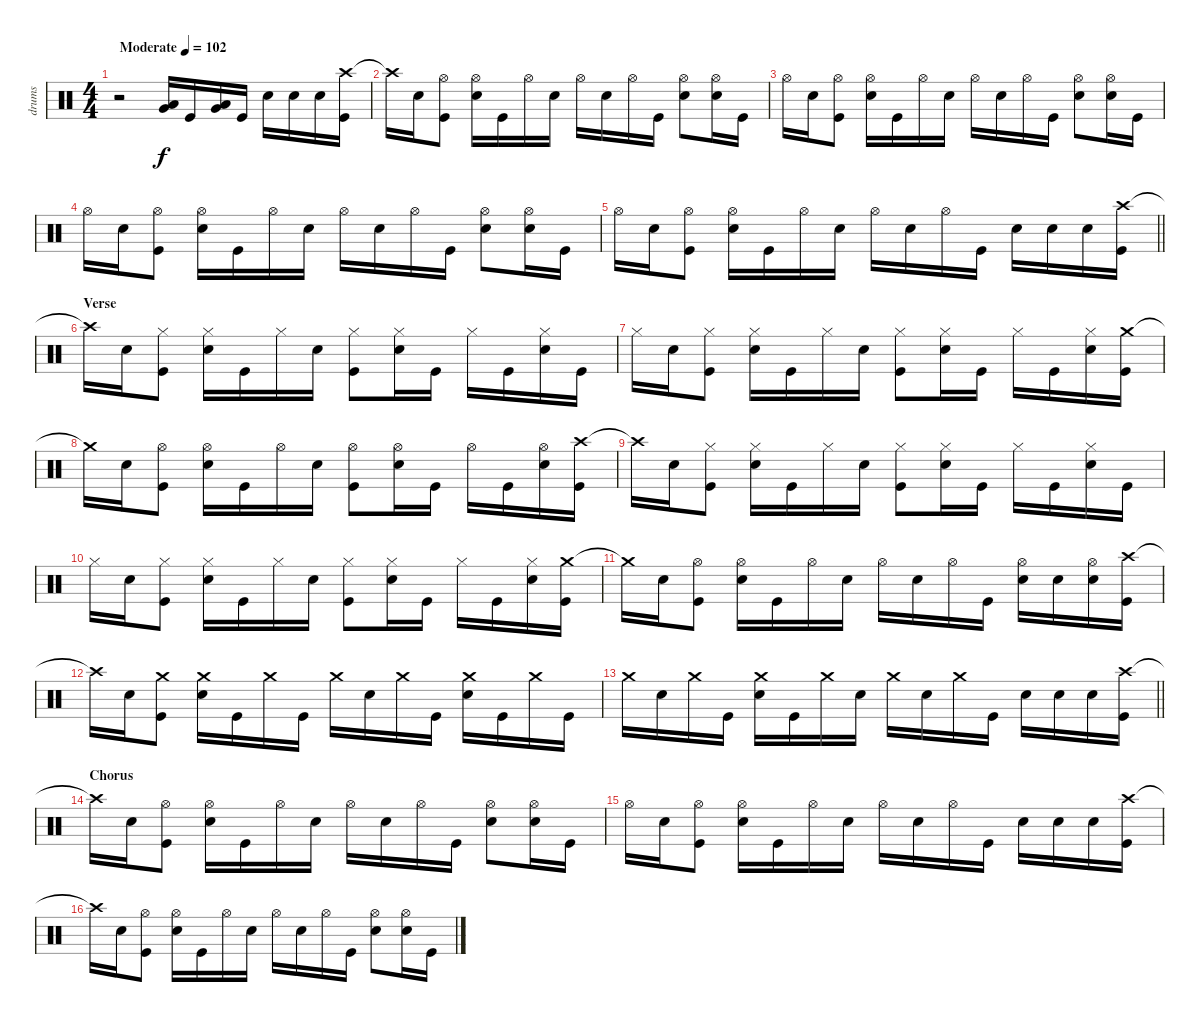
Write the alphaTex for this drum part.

\track ("drums" "drums") {instrument percussion}
\staff {score}
\articulation defaults
\ts (4 4)
\tempo (102 "Moderate")
\clef neutral
\ks c
r.2{dy f} ("Very Low Tom (hit)" "Low Tom (hit)").16 "Kick (hit)".16 ("Very Low Tom (hit)" "Low Tom (hit)").16 "Kick (hit)".16 "Snare (hit) 2".16 "Snare (hit) 2".16 "Snare (hit) 2".16 ("Crash high (hit)" "Kick (hit)").16 |
"Crash high (hit)"{t}.16 "Snare (hit) 2".16 ("Kick (hit)" "Hi-Hat (open)").8 ("Snare (hit) 2" "Hi-Hat (open)").16 "Kick (hit)".16 "Hi-Hat (open)".16 "Snare (hit) 2".16 "Hi-Hat (open)".16 "Snare (hit) 2".16 "Hi-Hat (open)".16 "Kick (hit)".16 ("Snare (hit) 2" "Hi-Hat (open)").8 ("Snare (hit) 2" "Hi-Hat (open)").16 "Kick (hit)".16 |
"Hi-Hat (open)".16 "Snare (hit) 2".16 ("Kick (hit)" "Hi-Hat (open)").8 ("Snare (hit) 2" "Hi-Hat (open)").16 "Kick (hit)".16 "Hi-Hat (open)".16 "Snare (hit) 2".16 "Hi-Hat (open)".16 "Snare (hit) 2".16 "Hi-Hat (open)".16 "Kick (hit)".16 ("Snare (hit) 2" "Hi-Hat (open)").8 ("Snare (hit) 2" "Hi-Hat (open)").16 "Kick (hit)".16 |
"Hi-Hat (open)".16 "Snare (hit) 2".16 ("Kick (hit)" "Hi-Hat (open)").8 ("Snare (hit) 2" "Hi-Hat (open)").16 "Kick (hit)".16 "Hi-Hat (open)".16 "Snare (hit) 2".16 "Hi-Hat (open)".16 "Snare (hit) 2".16 "Hi-Hat (open)".16 "Kick (hit)".16 ("Snare (hit) 2" "Hi-Hat (open)").8 ("Snare (hit) 2" "Hi-Hat (open)").16 "Kick (hit)".16 |
\barLineRight lightlight "Hi-Hat (open)".16 "Snare (hit) 2".16
("Kick (hit)" "Hi-Hat (open)").8 ("Snare (hit) 2" "Hi-Hat (open)").16 "Kick (hit)".16 "Hi-Hat (open)".16 "Snare (hit) 2".16 "Hi-Hat (open)".16 "Snare (hit) 2".16 "Hi-Hat (open)".16 "Kick (hit)".16 "Snare (hit) 2".16 "Snare (hit) 2".16 "Snare (hit) 2".16 ("Crash high (hit)" "Kick (hit)").16 |
\section ("" "Verse")
"Crash high (hit)"{t}.16 "Snare (hit) 2".16 ("Hi-Hat (closed)" "Kick (hit)").8 ("Hi-Hat (closed)" "Snare (hit) 2").16 "Kick (hit)".16 "Hi-Hat (closed)".16 "Snare (hit) 2".16 ("Hi-Hat (closed)" "Kick (hit)").8 ("Hi-Hat (closed)" "Snare (hit) 2").16 "Kick (hit)".16 "Hi-Hat (closed)".16 "Kick (hit)".16 ("Hi-Hat (closed)" "Snare (hit) 2").16 "Kick (hit)".16 |
"Hi-Hat (closed)".16 "Snare (hit) 2".16 ("Hi-Hat (closed)" "Kick (hit)").8 ("Hi-Hat (closed)" "Snare (hit) 2").16 "Kick (hit)".16 "Hi-Hat (closed)".16 "Snare (hit) 2".16 ("Hi-Hat (closed)" "Kick (hit)").8 ("Hi-Hat (closed)" "Snare (hit) 2").16 "Kick (hit)".16 "Hi-Hat (closed)".16 "Kick (hit)".16 ("Hi-Hat (closed)" "Snare (hit) 2").16 ("Crash medium (hit)" "Kick (hit)").16 |
"Crash medium (hit)"{t}.16 "Snare (hit) 2".16 ("Kick (hit)" "Hi-Hat (open)").8 ("Snare (hit) 2" "Hi-Hat (open)").16 "Kick (hit)".16 "Hi-Hat (open)".16 "Snare (hit) 2".16 ("Kick (hit)" "Hi-Hat (open)").8 ("Hi-Hat (open)" "Snare (hit) 2").16 "Kick (hit)".16 "Hi-Hat (open)".16 "Kick (hit)".16 ("Hi-Hat (open)" "Snare (hit) 2").16 ("Crash high (hit)" "Kick (hit)").16 |
"Crash high (hit)"{t}.16 "Snare (hit) 2".16 ("Hi-Hat (closed)" "Kick (hit)").8 ("Hi-Hat (closed)" "Snare (hit) 2").16 "Kick (hit)".16 "Hi-Hat (closed)".16 "Snare (hit) 2".16 ("Hi-Hat (closed)" "Kick (hit)").8 ("Hi-Hat (closed)" "Snare (hit) 2").16 "Kick (hit)".16 "Hi-Hat (closed)".16 "Kick (hit)".16 ("Hi-Hat (closed)" "Snare (hit) 2").16 "Kick (hit)".16 |
"Hi-Hat (closed)".16 "Snare (hit) 2".16 ("Hi-Hat (closed)" "Kick (hit)").8 ("Hi-Hat (closed)" "Snare (hit) 2").16 "Kick (hit)".16 "Hi-Hat (closed)".16 "Snare (hit) 2".16 ("Hi-Hat (closed)" "Kick (hit)").8 ("Hi-Hat (closed)" "Snare (hit) 2").16 "Kick (hit)".16 "Hi-Hat (closed)".16 "Kick (hit)".16 ("Hi-Hat (closed)" "Snare (hit) 2").16 ("Crash medium (hit)" "Kick (hit)").16 |
"Crash medium (hit)"{t}.16 "Snare (hit) 2".16 ("Kick (hit)" "Hi-Hat (open)").8 ("Snare (hit) 2" "Hi-Hat (open)").16 "Kick (hit)".16 "Hi-Hat (open)".16 "Snare (hit) 2".16 "Hi-Hat (open)".16 "Snare (hit) 2".16 "Hi-Hat (open)".16 "Kick (hit)".16 ("Hi-Hat (open)" "Snare (hit) 2").16 "Snare (hit) 2".16 ("Hi-Hat (open)" "Snare (hit) 2").16 ("Crash high (hit)" "Kick (hit)").16 |
"Crash high (hit)"{t}.16 "Snare (hit) 2".16 ("Crash medium (hit)" "Kick (hit)").8 ("Crash medium (hit)" "Snare (hit) 2").16 "Kick (hit)".16 "Crash medium (hit)".16 "Kick (hit)".16 "Crash medium (hit)".16 "Snare (hit) 2".16 "Crash medium (hit)".16 "Kick (hit)".16 ("Crash medium (hit)" "Snare (hit) 2").16 "Kick (hit)".16 "Crash medium (hit)".16 "Kick (hit)".16 |
\barLineRight lightlight "Crash medium (hit)".16 "Snare (hit) 2".16 "Crash medium (hit)".16 "Kick (hit)".16
("Crash medium (hit)" "Snare (hit) 2").16 "Kick (hit)".16 "Crash medium (hit)".16 "Snare (hit) 2".16 "Crash medium (hit)".16 "Snare (hit) 2".16 "Crash medium (hit)".16 "Kick (hit)".16 "Snare (hit) 2".16 "Snare (hit) 2".16 "Snare (hit) 2".16 ("Crash high (hit)" "Kick (hit)").16 |
\section ("" "Chorus")
"Crash high (hit)"{t}.16 "Snare (hit) 2".16 ("Kick (hit)" "Hi-Hat (open)").8 ("Snare (hit) 2" "Hi-Hat (open)").16 "Kick (hit)".16 "Hi-Hat (open)".16 "Snare (hit) 2".16 "Hi-Hat (open)".16 "Snare (hit) 2".16 "Hi-Hat (open)".16 "Kick (hit)".16 ("Snare (hit) 2" "Hi-Hat (open)").8 ("Snare (hit) 2" "Hi-Hat (open)").16 "Kick (hit)".16 |
"Hi-Hat (open)".16 "Snare (hit) 2".16 ("Kick (hit)" "Hi-Hat (open)").8 ("Snare (hit) 2" "Hi-Hat (open)").16 "Kick (hit)".16 "Hi-Hat (open)".16 "Snare (hit) 2".16 "Hi-Hat (open)".16 "Snare (hit) 2".16 "Hi-Hat (open)".16 "Kick (hit)".16 "Snare (hit) 2".16 "Snare (hit) 2".16 "Snare (hit) 2".16 ("Crash high (hit)" "Kick (hit)").16 |
"Crash high (hit)"{t}.16 "Snare (hit) 2".16 ("Kick (hit)" "Hi-Hat (open)").8 ("Snare (hit) 2" "Hi-Hat (open)").16 "Kick (hit)".16 "Hi-Hat (open)".16 "Snare (hit) 2".16 "Hi-Hat (open)".16 "Snare (hit) 2".16 "Hi-Hat (open)".16 "Kick (hit)".16 ("Snare (hit) 2" "Hi-Hat (open)").8 ("Snare (hit) 2" "Hi-Hat (open)").16 "Kick (hit)".16
